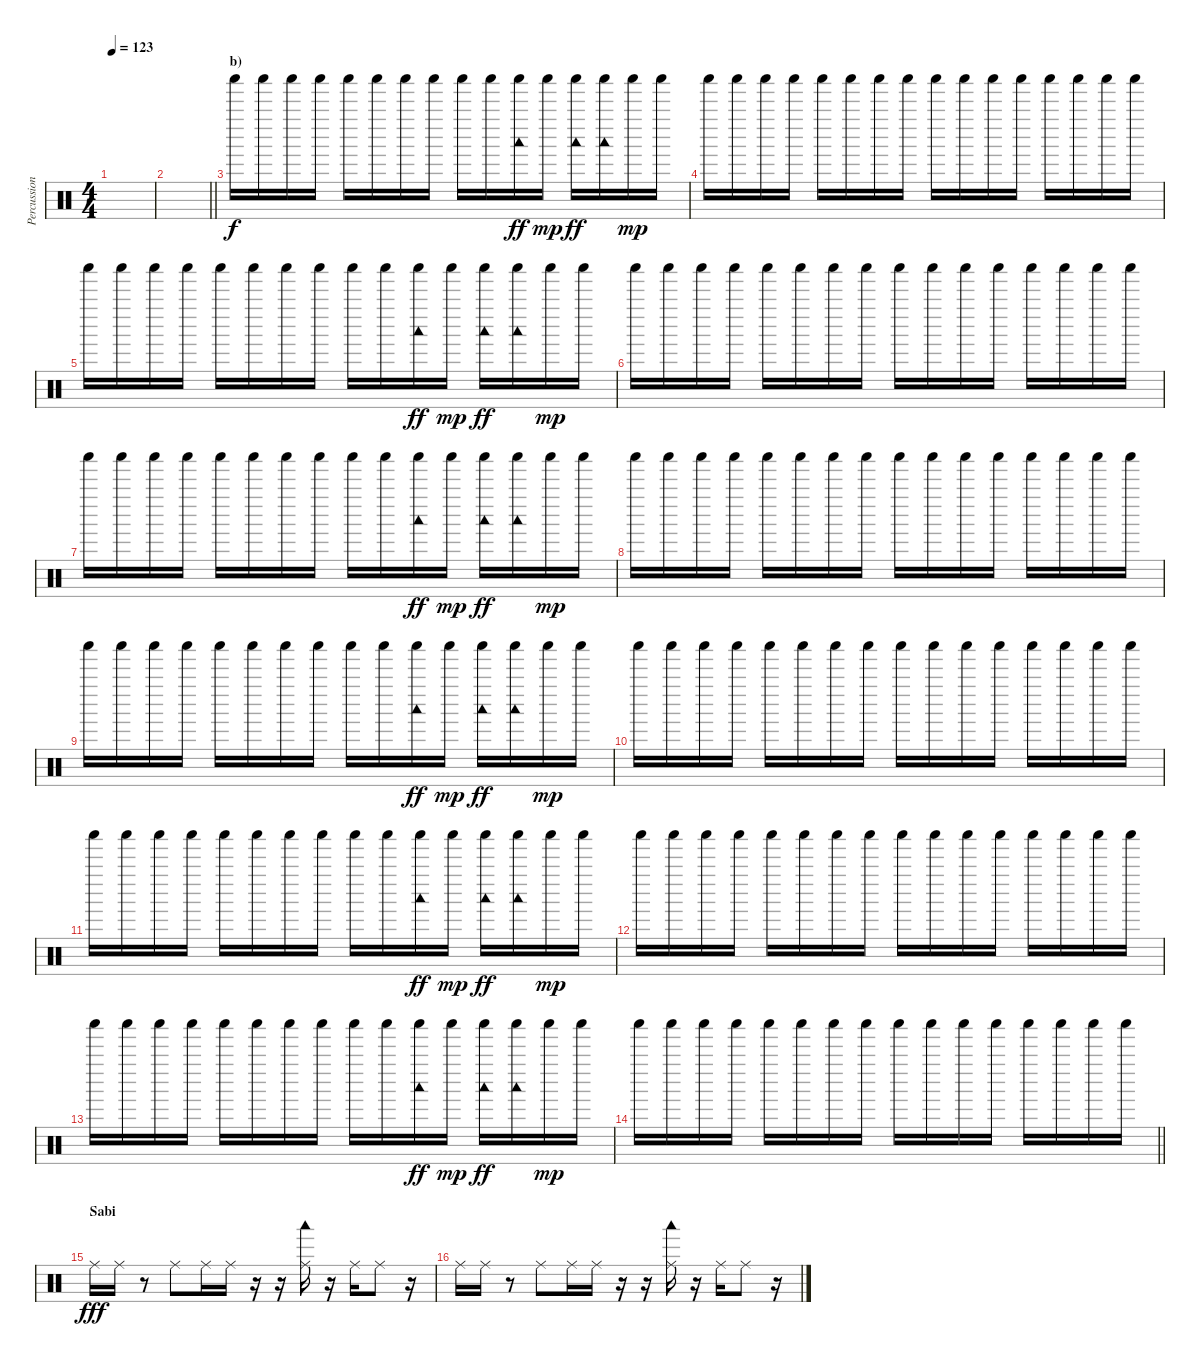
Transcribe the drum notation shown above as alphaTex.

\track ("Percussion" "Percussion") {instrument percussion}
\staff {score}
\articulation defaults
\ts (4 4)
\tempo 123
\clef neutral
\ks c
|
\barLineRight lightlight
|
\section ("" "b)")
"Shaker (hit)".16 "Shaker (hit)".16 "Shaker (hit)".16 "Shaker (hit)".16 "Shaker (hit)".16 "Shaker (hit)".16 "Shaker (hit)".16 "Shaker (hit)".16 "Shaker (hit)".16 "Shaker (hit)".16 ("Shaker (hit)" "Woodblock low (hit)").16{dy ff} "Shaker (hit)".16{dy mp} ("Shaker (hit)" "Woodblock low (hit)").16{dy ff} ("Shaker (hit)" "Woodblock low (hit)").16 "Shaker (hit)".16{dy mp} "Shaker (hit)".16 |
"Shaker (hit)".16 "Shaker (hit)".16 "Shaker (hit)".16 "Shaker (hit)".16 "Shaker (hit)".16 "Shaker (hit)".16 "Shaker (hit)".16 "Shaker (hit)".16 "Shaker (hit)".16 "Shaker (hit)".16 "Shaker (hit)".16 "Shaker (hit)".16 "Shaker (hit)".16 "Shaker (hit)".16 "Shaker (hit)".16 "Shaker (hit)".16 |
"Shaker (hit)".16 "Shaker (hit)".16 "Shaker (hit)".16 "Shaker (hit)".16 "Shaker (hit)".16 "Shaker (hit)".16 "Shaker (hit)".16 "Shaker (hit)".16 "Shaker (hit)".16 "Shaker (hit)".16 ("Shaker (hit)" "Woodblock low (hit)").16{dy ff} "Shaker (hit)".16{dy mp} ("Shaker (hit)" "Woodblock low (hit)").16{dy ff} ("Shaker (hit)" "Woodblock low (hit)").16 "Shaker (hit)".16{dy mp} "Shaker (hit)".16 |
"Shaker (hit)".16 "Shaker (hit)".16 "Shaker (hit)".16 "Shaker (hit)".16 "Shaker (hit)".16 "Shaker (hit)".16 "Shaker (hit)".16 "Shaker (hit)".16 "Shaker (hit)".16 "Shaker (hit)".16 "Shaker (hit)".16 "Shaker (hit)".16 "Shaker (hit)".16 "Shaker (hit)".16 "Shaker (hit)".16 "Shaker (hit)".16 |
"Shaker (hit)".16 "Shaker (hit)".16 "Shaker (hit)".16 "Shaker (hit)".16 "Shaker (hit)".16 "Shaker (hit)".16 "Shaker (hit)".16 "Shaker (hit)".16 "Shaker (hit)".16 "Shaker (hit)".16 ("Shaker (hit)" "Woodblock low (hit)").16{dy ff} "Shaker (hit)".16{dy mp} ("Shaker (hit)" "Woodblock low (hit)").16{dy ff} ("Shaker (hit)" "Woodblock low (hit)").16 "Shaker (hit)".16{dy mp} "Shaker (hit)".16 |
"Shaker (hit)".16 "Shaker (hit)".16 "Shaker (hit)".16 "Shaker (hit)".16 "Shaker (hit)".16 "Shaker (hit)".16 "Shaker (hit)".16 "Shaker (hit)".16 "Shaker (hit)".16 "Shaker (hit)".16 "Shaker (hit)".16 "Shaker (hit)".16 "Shaker (hit)".16 "Shaker (hit)".16 "Shaker (hit)".16 "Shaker (hit)".16 |
"Shaker (hit)".16 "Shaker (hit)".16 "Shaker (hit)".16 "Shaker (hit)".16 "Shaker (hit)".16 "Shaker (hit)".16 "Shaker (hit)".16 "Shaker (hit)".16 "Shaker (hit)".16 "Shaker (hit)".16 ("Shaker (hit)" "Woodblock low (hit)").16{dy ff} "Shaker (hit)".16{dy mp} ("Shaker (hit)" "Woodblock low (hit)").16{dy ff} ("Shaker (hit)" "Woodblock low (hit)").16 "Shaker (hit)".16{dy mp} "Shaker (hit)".16 |
"Shaker (hit)".16 "Shaker (hit)".16 "Shaker (hit)".16 "Shaker (hit)".16 "Shaker (hit)".16 "Shaker (hit)".16 "Shaker (hit)".16 "Shaker (hit)".16 "Shaker (hit)".16 "Shaker (hit)".16 "Shaker (hit)".16 "Shaker (hit)".16 "Shaker (hit)".16 "Shaker (hit)".16 "Shaker (hit)".16 "Shaker (hit)".16 |
"Shaker (hit)".16 "Shaker (hit)".16 "Shaker (hit)".16 "Shaker (hit)".16 "Shaker (hit)".16 "Shaker (hit)".16 "Shaker (hit)".16 "Shaker (hit)".16 "Shaker (hit)".16 "Shaker (hit)".16 ("Shaker (hit)" "Woodblock low (hit)").16{dy ff} "Shaker (hit)".16{dy mp} ("Shaker (hit)" "Woodblock low (hit)").16{dy ff} ("Shaker (hit)" "Woodblock low (hit)").16 "Shaker (hit)".16{dy mp} "Shaker (hit)".16 |
"Shaker (hit)".16 "Shaker (hit)".16 "Shaker (hit)".16 "Shaker (hit)".16 "Shaker (hit)".16 "Shaker (hit)".16 "Shaker (hit)".16 "Shaker (hit)".16 "Shaker (hit)".16 "Shaker (hit)".16 "Shaker (hit)".16 "Shaker (hit)".16 "Shaker (hit)".16 "Shaker (hit)".16 "Shaker (hit)".16 "Shaker (hit)".16 |
"Shaker (hit)".16 "Shaker (hit)".16 "Shaker (hit)".16 "Shaker (hit)".16 "Shaker (hit)".16 "Shaker (hit)".16 "Shaker (hit)".16 "Shaker (hit)".16 "Shaker (hit)".16 "Shaker (hit)".16 ("Shaker (hit)" "Woodblock low (hit)").16{dy ff} "Shaker (hit)".16{dy mp} ("Shaker (hit)" "Woodblock low (hit)").16{dy ff} ("Shaker (hit)" "Woodblock low (hit)").16 "Shaker (hit)".16{dy mp} "Shaker (hit)".16 |
\barLineRight lightlight "Shaker (hit)".16 "Shaker (hit)".16 "Shaker (hit)".16 "Shaker (hit)".16 "Shaker (hit)".16 "Shaker (hit)".16 "Shaker (hit)".16 "Shaker (hit)".16 "Shaker (hit)".16 "Shaker (hit)".16 "Shaker (hit)".16 "Shaker (hit)".16 "Shaker (hit)".16 "Shaker (hit)".16 "Shaker (hit)".16 "Shaker (hit)".16
|
\section ("" "Sabi")
"Ride (middle)".16{dy fff} "Ride (middle)".16 r.8 "Ride (middle)".8 "Ride (middle)".16 "Ride (middle)".16 r.16 r.16 ("Ride (middle)" "Woodblock low (hit)").16 r.16 "Ride (middle)".16 "Ride (middle)".8 r.16 |
"Ride (middle)".16 "Ride (middle)".16 r.8 "Ride (middle)".8 "Ride (middle)".16 "Ride (middle)".16 r.16 r.16 ("Ride (middle)" "Woodblock low (hit)").16 r.16 "Ride (middle)".16 "Ride (middle)".8 r.16
